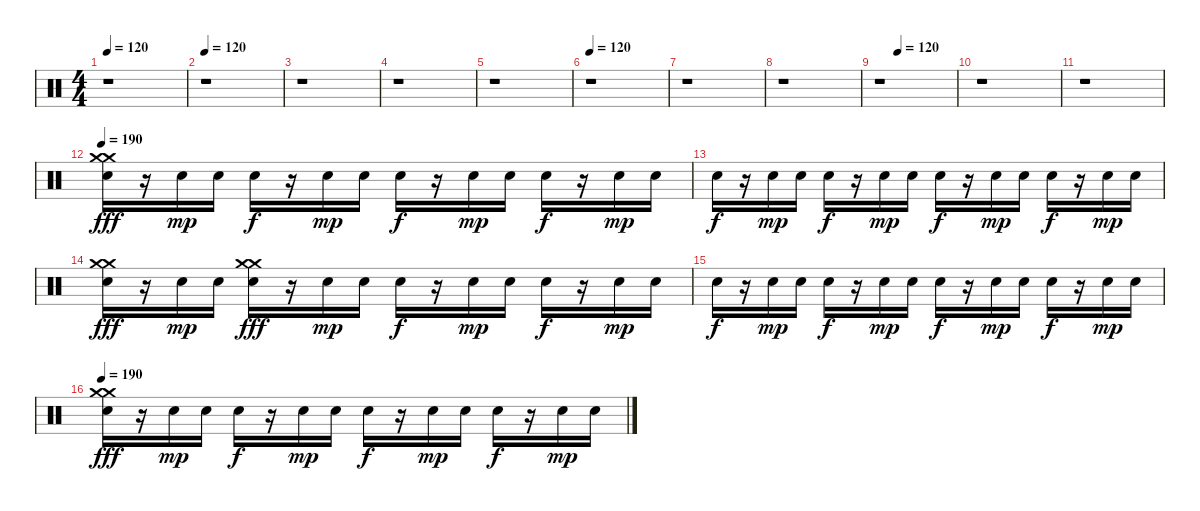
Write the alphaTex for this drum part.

\track "" {instrument percussion}
\staff {score}
\articulation defaults
\ts (4 4)
\tempo 120
\clef neutral
\ks c
r.1{dy ff} |
\tempo 120
r.1 |
r.1 |
r.1 |
r.1 |
\tempo 120
r.1 |
r.1 |
r.1 |
\tempo (120 0.25)
r.1 |
r.1 |
r.1 |
\tempo 190
("Snare (hit) 2" "Crash medium (hit)" "Crash medium (hit)").16{dy fff} r.16 "Snare (hit) 2".16{dy mp} "Snare (hit) 2".16 "Snare (hit) 2".16{dy f} r.16 "Snare (hit) 2".16{dy mp} "Snare (hit) 2".16 "Snare (hit) 2".16{dy f} r.16 "Snare (hit) 2".16{dy mp} "Snare (hit) 2".16 "Snare (hit) 2".16{dy f} r.16 "Snare (hit) 2".16{dy mp} "Snare (hit) 2".16 |
"Snare (hit) 2".16{dy f} r.16 "Snare (hit) 2".16{dy mp} "Snare (hit) 2".16 "Snare (hit) 2".16{dy f} r.16 "Snare (hit) 2".16{dy mp} "Snare (hit) 2".16 "Snare (hit) 2".16{dy f} r.16 "Snare (hit) 2".16{dy mp} "Snare (hit) 2".16 "Snare (hit) 2".16{dy f} r.16 "Snare (hit) 2".16{dy mp} "Snare (hit) 2".16 |
("Snare (hit) 2" "Crash medium (hit)" "Crash medium (hit)").16{dy fff} r.16 "Snare (hit) 2".16{dy mp} "Snare (hit) 2".16 ("Snare (hit) 2" "Crash medium (hit)" "Crash medium (hit)").16{dy fff} r.16 "Snare (hit) 2".16{dy mp} "Snare (hit) 2".16 "Snare (hit) 2".16{dy f} r.16 "Snare (hit) 2".16{dy mp} "Snare (hit) 2".16 "Snare (hit) 2".16{dy f} r.16 "Snare (hit) 2".16{dy mp} "Snare (hit) 2".16 |
"Snare (hit) 2".16{dy f} r.16 "Snare (hit) 2".16{dy mp} "Snare (hit) 2".16 "Snare (hit) 2".16{dy f} r.16 "Snare (hit) 2".16{dy mp} "Snare (hit) 2".16 "Snare (hit) 2".16{dy f} r.16 "Snare (hit) 2".16{dy mp} "Snare (hit) 2".16 "Snare (hit) 2".16{dy f} r.16 "Snare (hit) 2".16{dy mp} "Snare (hit) 2".16 |
\tempo 190
("Snare (hit) 2" "Crash medium (hit)" "Crash medium (hit)").16{dy fff} r.16 "Snare (hit) 2".16{dy mp} "Snare (hit) 2".16 "Snare (hit) 2".16{dy f} r.16 "Snare (hit) 2".16{dy mp} "Snare (hit) 2".16 "Snare (hit) 2".16{dy f} r.16 "Snare (hit) 2".16{dy mp} "Snare (hit) 2".16 "Snare (hit) 2".16{dy f} r.16 "Snare (hit) 2".16{dy mp} "Snare (hit) 2".16
